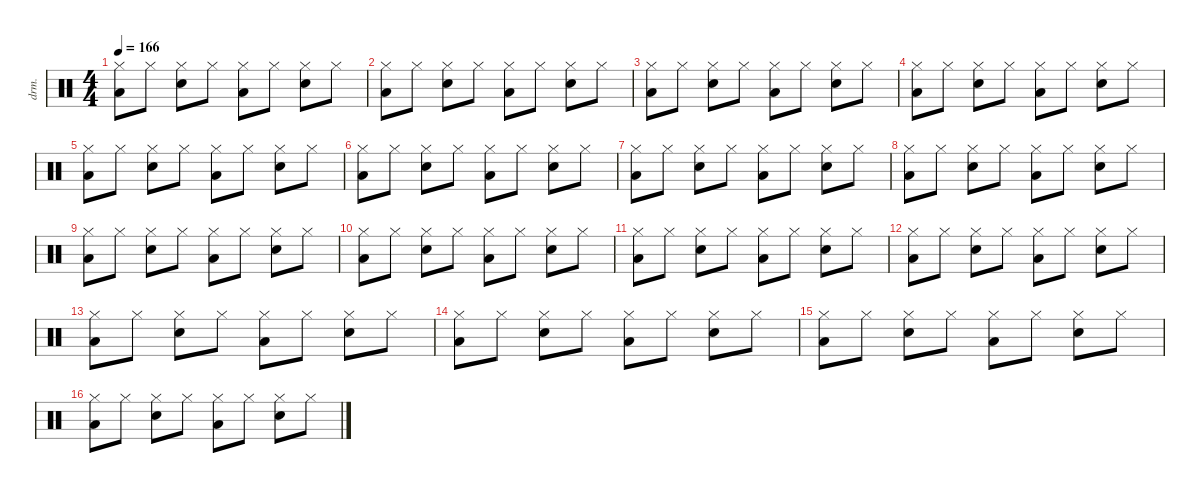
\defaultSystemsLayout 4
\hideDynamics
\bracketExtendMode nobrackets
\otherSystemsTrackNameOrientation horizontal
\track ("Percussions" "drm.") {instrument percussion}
\staff {score}
\articulation defaults
\ts (4 4)
\tempo 166
\clef neutral
\ks c
("Low Tom (hit)" "Hi-Hat (closed)").8{dy fff beam Down} "Hi-Hat (closed)".8{beam Down} ("Snare (hit) 2" "Hi-Hat (closed)").8{beam Down} "Hi-Hat (closed)".8{beam Down} ("Low Tom (hit)" "Hi-Hat (closed)").8{beam Down} "Hi-Hat (closed)".8{beam Down} ("Snare (hit) 2" "Hi-Hat (closed)").8{beam Down} "Hi-Hat (closed)".8{beam Down} |
("Low Tom (hit)" "Hi-Hat (closed)").8{beam Down} "Hi-Hat (closed)".8{beam Down} ("Snare (hit) 2" "Hi-Hat (closed)").8{beam Down} "Hi-Hat (closed)".8{beam Down} ("Low Tom (hit)" "Hi-Hat (closed)").8{beam Down} "Hi-Hat (closed)".8{beam Down} ("Snare (hit) 2" "Hi-Hat (closed)").8{beam Down} "Hi-Hat (closed)".8{beam Down} |
("Low Tom (hit)" "Hi-Hat (closed)").8{beam Down} "Hi-Hat (closed)".8{beam Down} ("Snare (hit) 2" "Hi-Hat (closed)").8{beam Down} "Hi-Hat (closed)".8{beam Down} ("Low Tom (hit)" "Hi-Hat (closed)").8{beam Down} "Hi-Hat (closed)".8{beam Down} ("Snare (hit) 2" "Hi-Hat (closed)").8{beam Down} "Hi-Hat (closed)".8{beam Down} |
("Low Tom (hit)" "Hi-Hat (closed)").8{beam Down} "Hi-Hat (closed)".8{beam Down} ("Snare (hit) 2" "Hi-Hat (closed)").8{beam Down} "Hi-Hat (closed)".8{beam Down} ("Low Tom (hit)" "Hi-Hat (closed)").8{beam Down} "Hi-Hat (closed)".8{beam Down} ("Snare (hit) 2" "Hi-Hat (closed)").8{beam Down} "Hi-Hat (closed)".8{beam Down} |
("Low Tom (hit)" "Hi-Hat (closed)").8{beam Down} "Hi-Hat (closed)".8{beam Down} ("Snare (hit) 2" "Hi-Hat (closed)").8{beam Down} "Hi-Hat (closed)".8{beam Down} ("Low Tom (hit)" "Hi-Hat (closed)").8{beam Down} "Hi-Hat (closed)".8{beam Down} ("Snare (hit) 2" "Hi-Hat (closed)").8{beam Down} "Hi-Hat (closed)".8{beam Down} |
("Low Tom (hit)" "Hi-Hat (closed)").8{beam Down} "Hi-Hat (closed)".8{beam Down} ("Snare (hit) 2" "Hi-Hat (closed)").8{beam Down} "Hi-Hat (closed)".8{beam Down} ("Low Tom (hit)" "Hi-Hat (closed)").8{beam Down} "Hi-Hat (closed)".8{beam Down} ("Snare (hit) 2" "Hi-Hat (closed)").8{beam Down} "Hi-Hat (closed)".8{beam Down} |
("Low Tom (hit)" "Hi-Hat (closed)").8{beam Down} "Hi-Hat (closed)".8{beam Down} ("Snare (hit) 2" "Hi-Hat (closed)").8{beam Down} "Hi-Hat (closed)".8{beam Down} ("Low Tom (hit)" "Hi-Hat (closed)").8{beam Down} "Hi-Hat (closed)".8{beam Down} ("Snare (hit) 2" "Hi-Hat (closed)").8{beam Down} "Hi-Hat (closed)".8{beam Down} |
("Low Tom (hit)" "Hi-Hat (closed)").8{beam Down} "Hi-Hat (closed)".8{beam Down} ("Snare (hit) 2" "Hi-Hat (closed)").8{beam Down} "Hi-Hat (closed)".8{beam Down} ("Low Tom (hit)" "Hi-Hat (closed)").8{beam Down} "Hi-Hat (closed)".8{beam Down} ("Snare (hit) 2" "Hi-Hat (closed)").8{beam Down} "Hi-Hat (closed)".8{beam Down} |
("Low Tom (hit)" "Hi-Hat (closed)").8{beam Down} "Hi-Hat (closed)".8{beam Down} ("Snare (hit) 2" "Hi-Hat (closed)").8{beam Down} "Hi-Hat (closed)".8{beam Down} ("Low Tom (hit)" "Hi-Hat (closed)").8{beam Down} "Hi-Hat (closed)".8{beam Down} ("Snare (hit) 2" "Hi-Hat (closed)").8{beam Down} "Hi-Hat (closed)".8{beam Down} |
("Low Tom (hit)" "Hi-Hat (closed)").8{beam Down} "Hi-Hat (closed)".8{beam Down} ("Snare (hit) 2" "Hi-Hat (closed)").8{beam Down} "Hi-Hat (closed)".8{beam Down} ("Low Tom (hit)" "Hi-Hat (closed)").8{beam Down} "Hi-Hat (closed)".8{beam Down} ("Snare (hit) 2" "Hi-Hat (closed)").8{beam Down} "Hi-Hat (closed)".8{beam Down} |
("Low Tom (hit)" "Hi-Hat (closed)").8{beam Down} "Hi-Hat (closed)".8{beam Down} ("Snare (hit) 2" "Hi-Hat (closed)").8{beam Down} "Hi-Hat (closed)".8{beam Down} ("Low Tom (hit)" "Hi-Hat (closed)").8{beam Down} "Hi-Hat (closed)".8{beam Down} ("Snare (hit) 2" "Hi-Hat (closed)").8{beam Down} "Hi-Hat (closed)".8{beam Down} |
("Low Tom (hit)" "Hi-Hat (closed)").8{beam Down} "Hi-Hat (closed)".8{beam Down} ("Snare (hit) 2" "Hi-Hat (closed)").8{beam Down} "Hi-Hat (closed)".8{beam Down} ("Low Tom (hit)" "Hi-Hat (closed)").8{beam Down} "Hi-Hat (closed)".8{beam Down} ("Snare (hit) 2" "Hi-Hat (closed)").8{beam Down} "Hi-Hat (closed)".8{beam Down} |
("Low Tom (hit)" "Hi-Hat (closed)").8{beam Down} "Hi-Hat (closed)".8{beam Down} ("Snare (hit) 2" "Hi-Hat (closed)").8{beam Down} "Hi-Hat (closed)".8{beam Down} ("Low Tom (hit)" "Hi-Hat (closed)").8{beam Down} "Hi-Hat (closed)".8{beam Down} ("Snare (hit) 2" "Hi-Hat (closed)").8{beam Down} "Hi-Hat (closed)".8{beam Down} |
("Low Tom (hit)" "Hi-Hat (closed)").8{beam Down} "Hi-Hat (closed)".8{beam Down} ("Snare (hit) 2" "Hi-Hat (closed)").8{beam Down} "Hi-Hat (closed)".8{beam Down} ("Low Tom (hit)" "Hi-Hat (closed)").8{beam Down} "Hi-Hat (closed)".8{beam Down} ("Snare (hit) 2" "Hi-Hat (closed)").8{beam Down} "Hi-Hat (closed)".8{beam Down} |
("Low Tom (hit)" "Hi-Hat (closed)").8{beam Down} "Hi-Hat (closed)".8{beam Down} ("Snare (hit) 2" "Hi-Hat (closed)").8{beam Down} "Hi-Hat (closed)".8{beam Down} ("Low Tom (hit)" "Hi-Hat (closed)").8{beam Down} "Hi-Hat (closed)".8{beam Down} ("Snare (hit) 2" "Hi-Hat (closed)").8{beam Down} "Hi-Hat (closed)".8{beam Down} |
("Low Tom (hit)" "Hi-Hat (closed)").8{beam Down} "Hi-Hat (closed)".8{beam Down} ("Snare (hit) 2" "Hi-Hat (closed)").8{beam Down} "Hi-Hat (closed)".8{beam Down} ("Low Tom (hit)" "Hi-Hat (closed)").8{beam Down} "Hi-Hat (closed)".8{beam Down} ("Snare (hit) 2" "Hi-Hat (closed)").8{beam Down} "Hi-Hat (closed)".8{beam Down}
